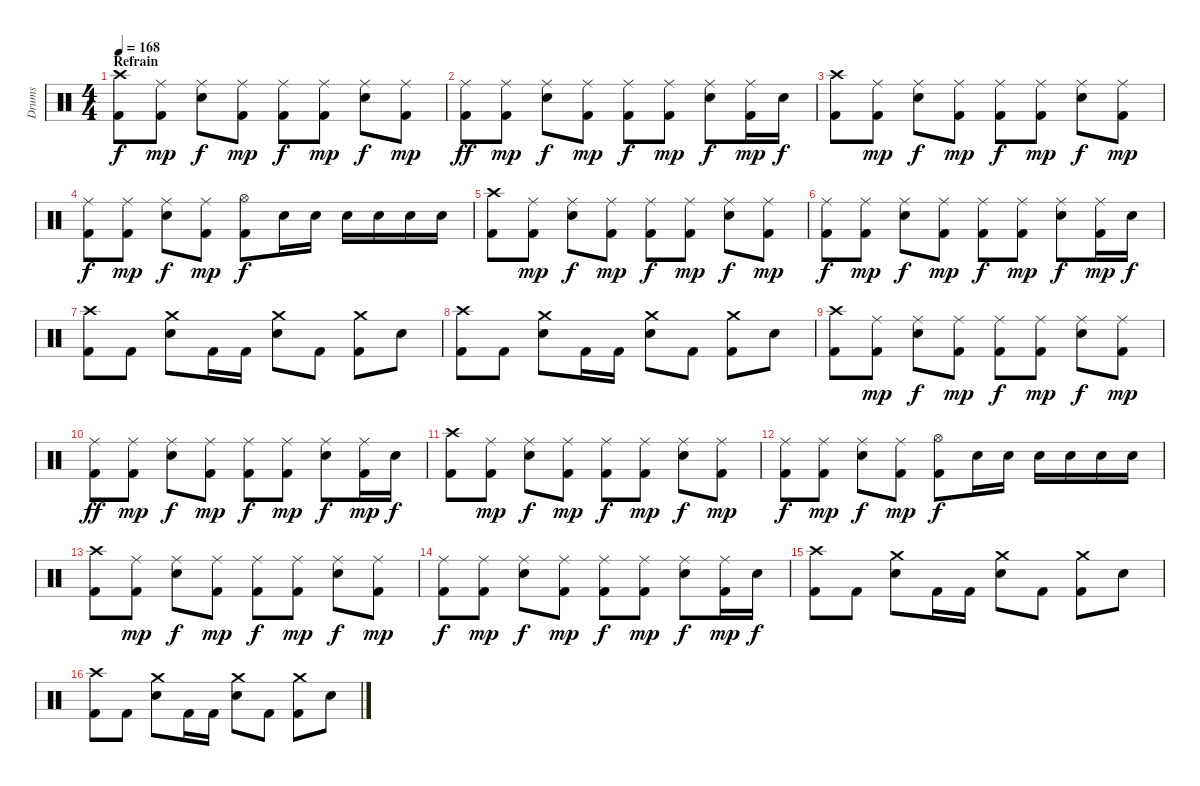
\track ("Drums" "Drums") {instrument percussion}
\staff {score}
\articulation defaults
\ts (4 4)
\section ("" "Refrain")
\tempo 168
\clef neutral
\ks c
("Crash high (hit)" "Kick (hit) 2").8{dy f} ("Ride (middle)" "Kick (hit) 2").8{dy mp} ("Ride (middle)" "Electric Snare (hit)").8{dy f} ("Ride (middle)" "Kick (hit) 2").8{dy mp} ("Ride (middle)" "Kick (hit) 2").8{dy f} ("Ride (middle)" "Kick (hit) 2").8{dy mp} ("Ride (middle)" "Electric Snare (hit)").8{dy f} ("Ride (middle)" "Kick (hit) 2").8{dy mp} |
("Ride (middle)" "Kick (hit) 2").8{dy ff} ("Ride (middle)" "Kick (hit) 2").8{dy mp} ("Ride (middle)" "Electric Snare (hit)").8{dy f} ("Ride (middle)" "Kick (hit) 2").8{dy mp} ("Ride (middle)" "Kick (hit) 2").8{dy f} ("Ride (middle)" "Kick (hit) 2").8{dy mp} ("Ride (middle)" "Electric Snare (hit)").8{dy f} ("Ride (middle)" "Kick (hit) 2").16{dy mp} "Electric Snare (hit)".16{dy f} |
("Crash high (hit)" "Kick (hit) 2").8 ("Ride (middle)" "Kick (hit) 2").8{dy mp} ("Ride (middle)" "Electric Snare (hit)").8{dy f} ("Ride (middle)" "Kick (hit) 2").8{dy mp} ("Ride (middle)" "Kick (hit) 2").8{dy f} ("Ride (middle)" "Kick (hit) 2").8{dy mp} ("Ride (middle)" "Electric Snare (hit)").8{dy f} ("Ride (middle)" "Kick (hit) 2").8{dy mp} |
("Ride (middle)" "Kick (hit) 2").8{dy f} ("Ride (middle)" "Kick (hit) 2").8{dy mp} ("Ride (middle)" "Electric Snare (hit)").8{dy f} ("Ride (middle)" "Kick (hit) 2").8{dy mp} ("Hi-Hat (open)" "Kick (hit) 2").8{dy f} "Electric Snare (hit)".16 "Electric Snare (hit)".16 "Electric Snare (hit)".16 "Electric Snare (hit)".16 "Electric Snare (hit)".16 "Electric Snare (hit)".16 |
("Crash high (hit)" "Kick (hit) 2").8 ("Ride (middle)" "Kick (hit) 2").8{dy mp} ("Ride (middle)" "Electric Snare (hit)").8{dy f} ("Ride (middle)" "Kick (hit) 2").8{dy mp} ("Ride (middle)" "Kick (hit) 2").8{dy f} ("Ride (middle)" "Kick (hit) 2").8{dy mp} ("Ride (middle)" "Electric Snare (hit)").8{dy f} ("Ride (middle)" "Kick (hit) 2").8{dy mp} |
("Ride (middle)" "Kick (hit) 2").8{dy f} ("Ride (middle)" "Kick (hit) 2").8{dy mp} ("Ride (middle)" "Electric Snare (hit)").8{dy f} ("Ride (middle)" "Kick (hit) 2").8{dy mp} ("Ride (middle)" "Kick (hit) 2").8{dy f} ("Ride (middle)" "Kick (hit) 2").8{dy mp} ("Ride (middle)" "Electric Snare (hit)").8{dy f} ("Ride (middle)" "Kick (hit) 2").16{dy mp} "Electric Snare (hit)".16{dy f} |
("Crash high (hit)" "Kick (hit) 2").8 "Kick (hit) 2".8 ("Crash medium (hit)" "Electric Snare (hit)").8 "Kick (hit) 2".16 "Kick (hit) 2".16 ("Crash medium (hit)" "Electric Snare (hit)").8 "Kick (hit) 2".8 ("Crash medium (hit)" "Kick (hit) 2").8 "Electric Snare (hit)".8 |
("Crash high (hit)" "Kick (hit) 2").8 "Kick (hit) 2".8 ("Crash medium (hit)" "Electric Snare (hit)").8 "Kick (hit) 2".16 "Kick (hit) 2".16 ("Crash medium (hit)" "Electric Snare (hit)").8 "Kick (hit) 2".8 ("Crash medium (hit)" "Kick (hit) 2").8 "Electric Snare (hit)".8 |
("Crash high (hit)" "Kick (hit) 2").8 ("Ride (middle)" "Kick (hit) 2").8{dy mp} ("Ride (middle)" "Electric Snare (hit)").8{dy f} ("Ride (middle)" "Kick (hit) 2").8{dy mp} ("Ride (middle)" "Kick (hit) 2").8{dy f} ("Ride (middle)" "Kick (hit) 2").8{dy mp} ("Ride (middle)" "Electric Snare (hit)").8{dy f} ("Ride (middle)" "Kick (hit) 2").8{dy mp} |
("Ride (middle)" "Kick (hit) 2").8{dy ff} ("Ride (middle)" "Kick (hit) 2").8{dy mp} ("Ride (middle)" "Electric Snare (hit)").8{dy f} ("Ride (middle)" "Kick (hit) 2").8{dy mp} ("Ride (middle)" "Kick (hit) 2").8{dy f} ("Ride (middle)" "Kick (hit) 2").8{dy mp} ("Ride (middle)" "Electric Snare (hit)").8{dy f} ("Ride (middle)" "Kick (hit) 2").16{dy mp} "Electric Snare (hit)".16{dy f} |
("Crash high (hit)" "Kick (hit) 2").8 ("Ride (middle)" "Kick (hit) 2").8{dy mp} ("Ride (middle)" "Electric Snare (hit)").8{dy f} ("Ride (middle)" "Kick (hit) 2").8{dy mp} ("Ride (middle)" "Kick (hit) 2").8{dy f} ("Ride (middle)" "Kick (hit) 2").8{dy mp} ("Ride (middle)" "Electric Snare (hit)").8{dy f} ("Ride (middle)" "Kick (hit) 2").8{dy mp} |
("Ride (middle)" "Kick (hit) 2").8{dy f} ("Ride (middle)" "Kick (hit) 2").8{dy mp} ("Ride (middle)" "Electric Snare (hit)").8{dy f} ("Ride (middle)" "Kick (hit) 2").8{dy mp} ("Hi-Hat (open)" "Kick (hit) 2").8{dy f} "Electric Snare (hit)".16 "Electric Snare (hit)".16 "Electric Snare (hit)".16 "Electric Snare (hit)".16 "Electric Snare (hit)".16 "Electric Snare (hit)".16 |
("Crash high (hit)" "Kick (hit) 2").8 ("Ride (middle)" "Kick (hit) 2").8{dy mp} ("Ride (middle)" "Electric Snare (hit)").8{dy f} ("Ride (middle)" "Kick (hit) 2").8{dy mp} ("Ride (middle)" "Kick (hit) 2").8{dy f} ("Ride (middle)" "Kick (hit) 2").8{dy mp} ("Ride (middle)" "Electric Snare (hit)").8{dy f} ("Ride (middle)" "Kick (hit) 2").8{dy mp} |
("Ride (middle)" "Kick (hit) 2").8{dy f} ("Ride (middle)" "Kick (hit) 2").8{dy mp} ("Ride (middle)" "Electric Snare (hit)").8{dy f} ("Ride (middle)" "Kick (hit) 2").8{dy mp} ("Ride (middle)" "Kick (hit) 2").8{dy f} ("Ride (middle)" "Kick (hit) 2").8{dy mp} ("Ride (middle)" "Electric Snare (hit)").8{dy f} ("Ride (middle)" "Kick (hit) 2").16{dy mp} "Electric Snare (hit)".16{dy f} |
("Crash high (hit)" "Kick (hit) 2").8 "Kick (hit) 2".8 ("Crash medium (hit)" "Electric Snare (hit)").8 "Kick (hit) 2".16 "Kick (hit) 2".16 ("Crash medium (hit)" "Electric Snare (hit)").8 "Kick (hit) 2".8 ("Crash medium (hit)" "Kick (hit) 2").8 "Electric Snare (hit)".8 |
("Crash high (hit)" "Kick (hit) 2").8 "Kick (hit) 2".8 ("Crash medium (hit)" "Electric Snare (hit)").8 "Kick (hit) 2".16 "Kick (hit) 2".16 ("Crash medium (hit)" "Electric Snare (hit)").8 "Kick (hit) 2".8 ("Crash medium (hit)" "Kick (hit) 2").8 "Electric Snare (hit)".8
